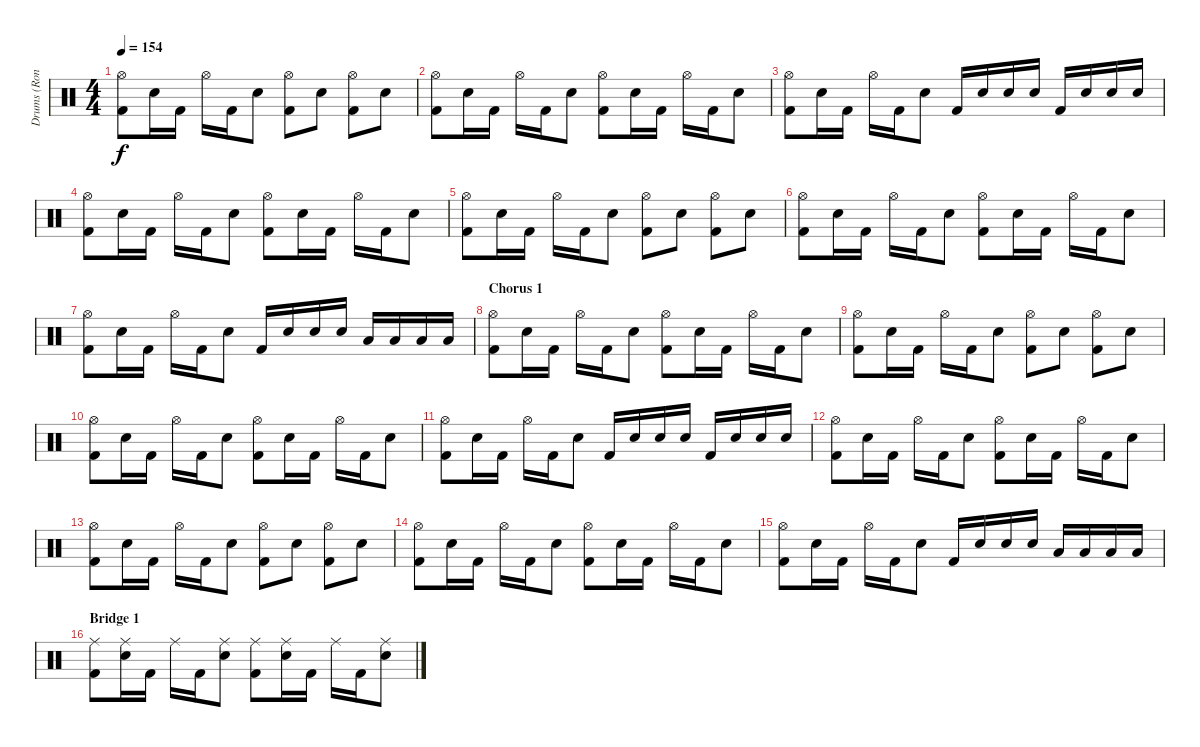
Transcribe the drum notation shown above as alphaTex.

\track ("Drums (Ron Welty)" "Drums (Ron") {instrument percussion}
\staff {score}
\articulation defaults
\ts (4 4)
\tempo 154
\clef neutral
\ks c
("Hi-Hat (open)" "Kick (hit) 2").8{dy f} "Electric Snare (hit)".16 "Kick (hit) 2".16 "Hi-Hat (open)".16 "Kick (hit) 2".16 "Electric Snare (hit)".8 ("Hi-Hat (open)" "Kick (hit) 2").8 "Electric Snare (hit)".8 ("Hi-Hat (open)" "Kick (hit) 2").8 "Electric Snare (hit)".8 |
("Hi-Hat (open)" "Kick (hit) 2").8 "Electric Snare (hit)".16 "Kick (hit) 2".16 "Hi-Hat (open)".16 "Kick (hit) 2".16 "Electric Snare (hit)".8 ("Hi-Hat (open)" "Kick (hit) 2").8 "Electric Snare (hit)".16 "Kick (hit) 2".16 "Hi-Hat (open)".16 "Kick (hit) 2".16 "Electric Snare (hit)".8 |
("Hi-Hat (open)" "Kick (hit) 2").8 "Electric Snare (hit)".16 "Kick (hit) 2".16 "Hi-Hat (open)".16 "Kick (hit) 2".16 "Electric Snare (hit)".8 "Kick (hit) 2".16 "Electric Snare (hit)".16 "Electric Snare (hit)".16 "Electric Snare (hit)".16 "Kick (hit) 2".16 "Electric Snare (hit)".16 "Electric Snare (hit)".16 "Electric Snare (hit)".16 |
("Hi-Hat (open)" "Kick (hit) 2").8 "Electric Snare (hit)".16 "Kick (hit) 2".16 "Hi-Hat (open)".16 "Kick (hit) 2".16 "Electric Snare (hit)".8 ("Hi-Hat (open)" "Kick (hit) 2").8 "Electric Snare (hit)".16 "Kick (hit) 2".16 "Hi-Hat (open)".16 "Kick (hit) 2".16 "Electric Snare (hit)".8 |
("Hi-Hat (open)" "Kick (hit) 2").8 "Electric Snare (hit)".16 "Kick (hit) 2".16 "Hi-Hat (open)".16 "Kick (hit) 2".16 "Electric Snare (hit)".8 ("Hi-Hat (open)" "Kick (hit) 2").8 "Electric Snare (hit)".8 ("Hi-Hat (open)" "Kick (hit) 2").8 "Electric Snare (hit)".8 |
("Hi-Hat (open)" "Kick (hit) 2").8 "Electric Snare (hit)".16 "Kick (hit) 2".16 "Hi-Hat (open)".16 "Kick (hit) 2".16 "Electric Snare (hit)".8 ("Hi-Hat (open)" "Kick (hit) 2").8 "Electric Snare (hit)".16 "Kick (hit) 2".16 "Hi-Hat (open)".16 "Kick (hit) 2".16 "Electric Snare (hit)".8 |
("Hi-Hat (open)" "Kick (hit) 2").8 "Electric Snare (hit)".16 "Kick (hit) 2".16 "Hi-Hat (open)".16 "Kick (hit) 2".16 "Electric Snare (hit)".8 "Kick (hit) 2".16 "Electric Snare (hit)".16 "Electric Snare (hit)".16 "Electric Snare (hit)".16 "Low Tom (hit)".16 "Low Tom (hit)".16 "Low Floor Tom (hit)".16 "Low Floor Tom (hit)".16 |
\section ("" "Chorus 1")
("Hi-Hat (open)" "Kick (hit) 2").8 "Electric Snare (hit)".16 "Kick (hit) 2".16 "Hi-Hat (open)".16 "Kick (hit) 2".16 "Electric Snare (hit)".8 ("Hi-Hat (open)" "Kick (hit) 2").8 "Electric Snare (hit)".16 "Kick (hit) 2".16 "Hi-Hat (open)".16 "Kick (hit) 2".16 "Electric Snare (hit)".8 |
("Hi-Hat (open)" "Kick (hit) 2").8 "Electric Snare (hit)".16 "Kick (hit) 2".16 "Hi-Hat (open)".16 "Kick (hit) 2".16 "Electric Snare (hit)".8 ("Hi-Hat (open)" "Kick (hit) 2").8 "Electric Snare (hit)".8 ("Hi-Hat (open)" "Kick (hit) 2").8 "Electric Snare (hit)".8 |
("Hi-Hat (open)" "Kick (hit) 2").8 "Electric Snare (hit)".16 "Kick (hit) 2".16 "Hi-Hat (open)".16 "Kick (hit) 2".16 "Electric Snare (hit)".8 ("Hi-Hat (open)" "Kick (hit) 2").8 "Electric Snare (hit)".16 "Kick (hit) 2".16 "Hi-Hat (open)".16 "Kick (hit) 2".16 "Electric Snare (hit)".8 |
("Hi-Hat (open)" "Kick (hit) 2").8 "Electric Snare (hit)".16 "Kick (hit) 2".16 "Hi-Hat (open)".16 "Kick (hit) 2".16 "Electric Snare (hit)".8 "Kick (hit) 2".16 "Electric Snare (hit)".16 "Electric Snare (hit)".16 "Electric Snare (hit)".16 "Kick (hit) 2".16 "Electric Snare (hit)".16 "Electric Snare (hit)".16 "Electric Snare (hit)".16 |
("Hi-Hat (open)" "Kick (hit) 2").8 "Electric Snare (hit)".16 "Kick (hit) 2".16 "Hi-Hat (open)".16 "Kick (hit) 2".16 "Electric Snare (hit)".8 ("Hi-Hat (open)" "Kick (hit) 2").8 "Electric Snare (hit)".16 "Kick (hit) 2".16 "Hi-Hat (open)".16 "Kick (hit) 2".16 "Electric Snare (hit)".8 |
("Hi-Hat (open)" "Kick (hit) 2").8 "Electric Snare (hit)".16 "Kick (hit) 2".16 "Hi-Hat (open)".16 "Kick (hit) 2".16 "Electric Snare (hit)".8 ("Hi-Hat (open)" "Kick (hit) 2").8 "Electric Snare (hit)".8 ("Hi-Hat (open)" "Kick (hit) 2").8 "Electric Snare (hit)".8 |
("Hi-Hat (open)" "Kick (hit) 2").8 "Electric Snare (hit)".16 "Kick (hit) 2".16 "Hi-Hat (open)".16 "Kick (hit) 2".16 "Electric Snare (hit)".8 ("Hi-Hat (open)" "Kick (hit) 2").8 "Electric Snare (hit)".16 "Kick (hit) 2".16 "Hi-Hat (open)".16 "Kick (hit) 2".16 "Electric Snare (hit)".8 |
("Hi-Hat (open)" "Kick (hit) 2").8 "Electric Snare (hit)".16 "Kick (hit) 2".16 "Hi-Hat (open)".16 "Kick (hit) 2".16 "Electric Snare (hit)".8 "Kick (hit) 2".16 "Electric Snare (hit)".16 "Electric Snare (hit)".16 "Electric Snare (hit)".16 "Low Tom (hit)".16 "Low Tom (hit)".16 "Low Floor Tom (hit)".16 "Low Floor Tom (hit)".16 |
\section ("" "Bridge 1")
("Ride (middle)" "Kick (hit) 2").8 ("Ride (middle)" "Electric Snare (hit)").16 "Kick (hit) 2".16 "Ride (middle)".16 "Kick (hit) 2".16 ("Ride (middle)" "Electric Snare (hit)").8 ("Ride (middle)" "Kick (hit) 2").8 ("Ride (middle)" "Electric Snare (hit)").16 "Kick (hit) 2".16 "Ride (middle)".16 "Kick (hit) 2".16 ("Ride (middle)" "Electric Snare (hit)").8
